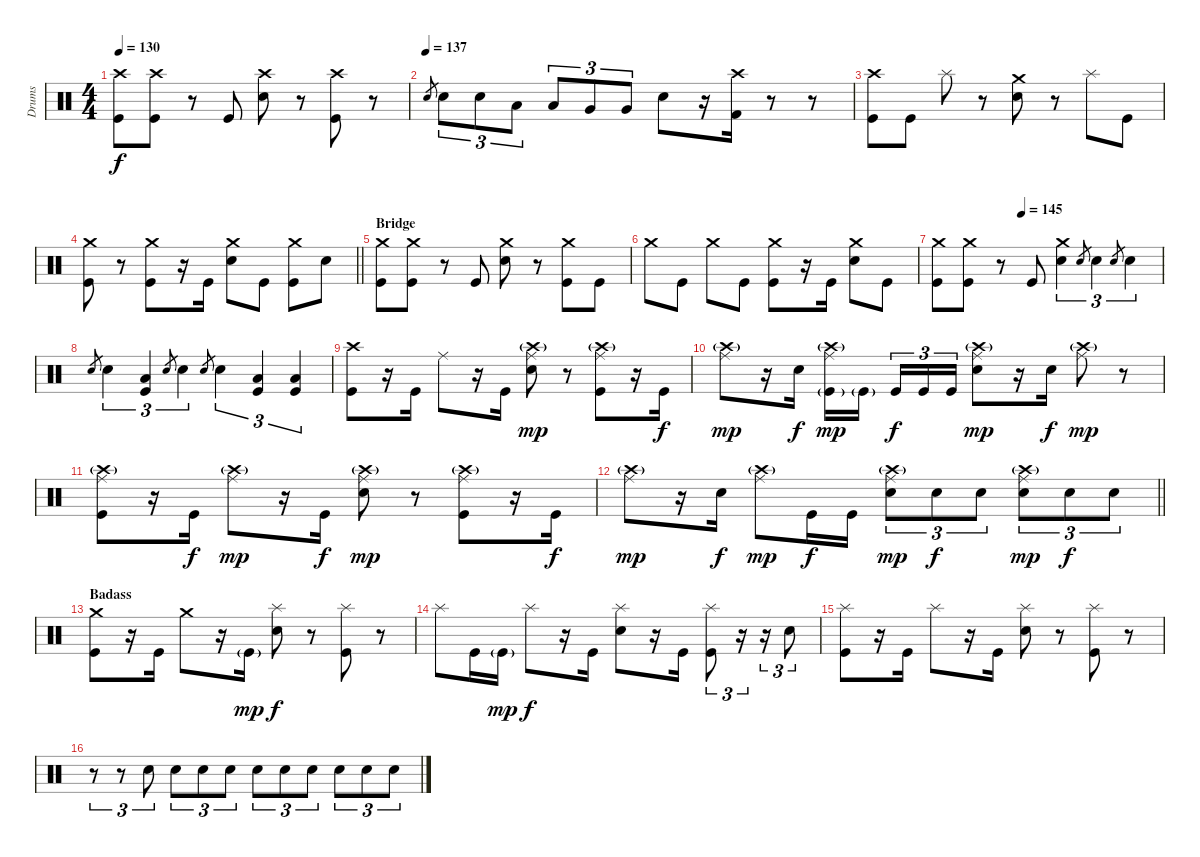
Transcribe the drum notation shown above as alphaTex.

\track ("Drums" "Drums") {instrument percussion}
\staff {score}
\articulation defaults
\ts (4 4)
\tempo 130
\clef neutral
\ks c
("Crash high (hit)" "Kick (hit)").8{dy f} ("Crash high (hit)" "Kick (hit)").8 r.8 "Kick (hit)".8 ("Crash high (hit)" "Electric Snare (hit)").8 r.8 ("Crash high (hit)" "Kick (hit)").8 r.8 |
\tempo (137)
"Electric Snare (hit)".8{gr} "Electric Snare (hit)".8{tu (3 2)} "Electric Snare (hit)".8{tu (3 2)} "Low Tom (hit)".8{tu (3 2)} "Low Tom (hit)".8{tu (3 2)} "Very Low Tom (hit)".8{tu (3 2)} "Very Low Tom (hit)".8{tu (3 2)} "Electric Snare (hit)".8 r.16 ("Crash high (hit)" "Kick (hit) 2").16 r.8 r.8 |
("Crash high (hit)" "Kick (hit)").8 "Kick (hit)".8 "Splash (hit)".8 r.8 ("Crash medium (hit)" "Electric Snare (hit)").8 r.8 "Splash (hit)".8 "Kick (hit)".8 |
\barLineRight lightlight
("Crash medium (hit)" "Kick (hit)").8 r.8 ("Crash medium (hit)" "Kick (hit)").8 r.16 "Kick (hit)".16 ("Crash medium (hit)" "Electric Snare (hit)").8 "Kick (hit)".8 ("Crash medium (hit)" "Kick (hit)").8 "Electric Snare (hit)".8 |
\section ("" "Bridge")
("Crash medium (hit)" "Kick (hit)").8 ("Crash medium (hit)" "Kick (hit)").8 r.8 "Kick (hit)".8 ("Crash medium (hit)" "Electric Snare (hit)").8 r.8 ("Crash medium (hit)" "Kick (hit)").8 "Kick (hit)".8 |
"Crash medium (hit)".8 "Kick (hit)".8 "Crash medium (hit)".8 "Kick (hit)".8 ("Crash medium (hit)" "Kick (hit)").8 r.16 "Kick (hit)".16 ("Crash medium (hit)" "Electric Snare (hit)").8 "Kick (hit)".8 |
\tempo (145 0.375)
("Crash medium (hit)" "Kick (hit)").8 ("Crash medium (hit)" "Kick (hit)").8 r.8 "Kick (hit)".8 ("Crash medium (hit)" "Electric Snare (hit)").4{tu (3 2)} "Electric Snare (hit)".8{gr} "Electric Snare (hit)".4{tu (3 2)} "Electric Snare (hit)".8{gr} "Electric Snare (hit)".4{tu (3 2)} |
"Electric Snare (hit)".8{gr} "Electric Snare (hit)".4{tu (3 2)} ("Low Tom (hit)" "Kick (hit)").4{tu (3 2)} "Electric Snare (hit)".8{gr} "Electric Snare (hit)".4{tu (3 2)} "Electric Snare (hit)".8{gr} "Electric Snare (hit)".4{tu (3 2)} ("Low Tom (hit)" "Kick (hit)").4{tu (3 2)} ("Low Tom (hit)" "Kick (hit)").4{tu (3 2)} |
("Crash high (hit)" "Kick (hit)").8 r.16 "Kick (hit)".16 "Ride (middle)".8 r.16 "Kick (hit)".16 ("Ride (middle)" "Crash high (hit)"{g} "Electric Snare (hit)").8{dy mp} r.8 ("Ride (middle)" "Crash high (hit)"{g} "Kick (hit)").8 r.16 "Kick (hit)".16{dy f} |
("Ride (middle)" "Crash high (hit)"{g}).8{dy mp} r.16 "Electric Snare (hit)".16{dy f} ("Ride (middle)" "Crash high (hit)"{g} "Kick (hit)"{g}).16{dy mp} "Kick (hit)"{g}.16 "Kick (hit)".16{tu (3 2) dy f} "Kick (hit)".16{tu (3 2)} "Kick (hit)".16{tu (3 2)} ("Ride (middle)" "Crash high (hit)"{g} "Electric Snare (hit)").8{dy mp} r.16 "Electric Snare (hit)".16{dy f} ("Ride (middle)" "Crash high (hit)"{g}).8{dy mp} r.8 |
("Ride (middle)" "Crash high (hit)"{g} "Kick (hit)").8 r.16 "Kick (hit)".16{dy f} ("Ride (middle)" "Crash high (hit)"{g}).8{dy mp} r.16 "Kick (hit)".16{dy f} ("Ride (middle)" "Crash high (hit)"{g} "Electric Snare (hit)").8{dy mp} r.8 ("Ride (middle)" "Crash high (hit)"{g} "Kick (hit)").8 r.16 "Kick (hit)".16{dy f} |
\barLineRight lightlight
("Ride (middle)" "Crash high (hit)"{g}).8{dy mp} r.16 "Electric Snare (hit)".16{dy f} ("Ride (middle)" "Crash high (hit)"{g}).8{dy mp} "Kick (hit)".16{dy f} "Kick (hit)".16 ("Ride (middle)" "Crash high (hit)"{g} "Electric Snare (hit)").8{tu (3 2) dy mp} "Electric Snare (hit)".8{tu (3 2) dy f} "Electric Snare (hit)".8{tu (3 2)} ("Ride (middle)" "Crash high (hit)"{g} "Electric Snare (hit)").8{tu (3 2) dy mp} "Electric Snare (hit)".8{tu (3 2) dy f} "Electric Snare (hit)".8{tu (3 2)} |
\section ("" "Badass")
("Crash medium (hit)" "Kick (hit)").8 r.16 "Kick (hit)".16 "Crash medium (hit)".8 r.16 "Kick (hit)"{g}.16{dy mp} ("Splash (hit)" "Electric Snare (hit)").8{dy f} r.8 ("Splash (hit)" "Kick (hit)").8 r.8 |
"Splash (hit)".8 "Kick (hit)".16 "Kick (hit)"{g}.16{dy mp} "Splash (hit)".8{dy f} r.16 "Kick (hit)".16 ("Splash (hit)" "Electric Snare (hit)").8 r.16 "Kick (hit)".16 ("Splash (hit)" "Kick (hit)").8{tu (3 2)} r.16{tu (3 2)} r.16{tu (3 2)} "Electric Snare (hit)".8{tu (3 2)} |
("Splash (hit)" "Kick (hit)").8 r.16 "Kick (hit)".16 "Splash (hit)".8 r.16 "Kick (hit)".16 ("Splash (hit)" "Electric Snare (hit)").8 r.8 ("Splash (hit)" "Kick (hit)").8 r.8 |
r.8{tu (3 2)} r.8{tu (3 2)} "Electric Snare (hit)".8{tu (3 2)} "Electric Snare (hit)".8{tu (3 2)} "Electric Snare (hit)".8{tu (3 2)} "Electric Snare (hit)".8{tu (3 2)} "Electric Snare (hit)".8{tu (3 2)} "Electric Snare (hit)".8{tu (3 2)} "Electric Snare (hit)".8{tu (3 2)} "Electric Snare (hit)".8{tu (3 2)} "Electric Snare (hit)".8{tu (3 2)} "Electric Snare (hit)".8{tu (3 2)}
